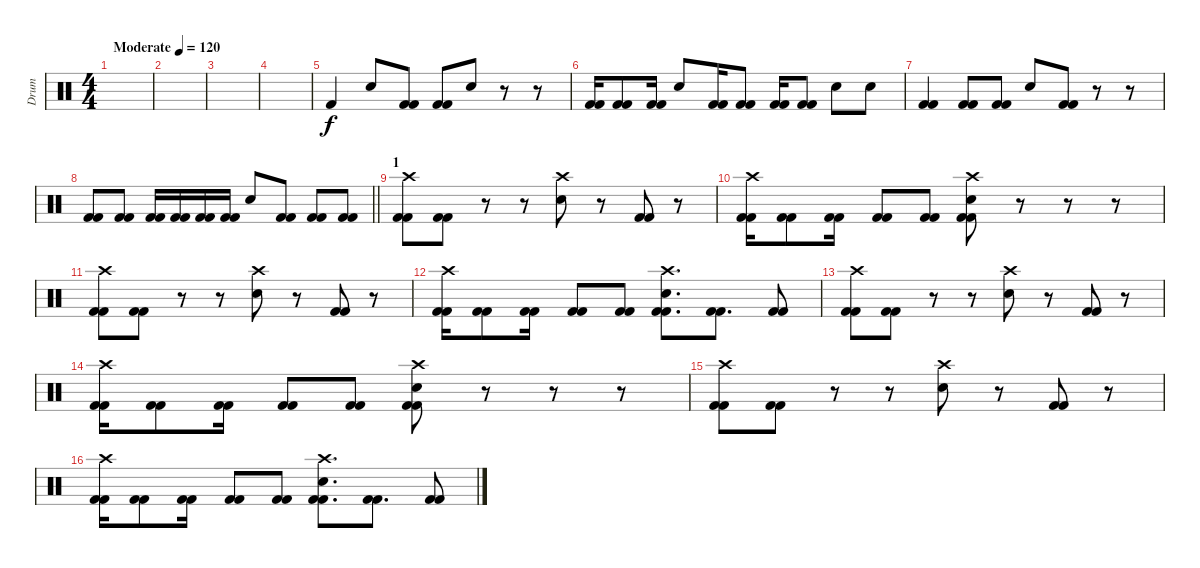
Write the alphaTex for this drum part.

\track ("Drum" "Drum") {instrument percussion}
\staff {score}
\articulation defaults
\ts (4 4)
\tempo (120 "Moderate")
\clef neutral
\ks c
|
|
|
|
"Kick (hit) 2".4 "Electric Snare (hit)".8 ("Kick (hit) 2" "Kick (hit) 2").8 ("Kick (hit) 2" "Kick (hit) 2").8 "Electric Snare (hit)".8 r.8 r.8 |
("Kick (hit) 2" "Kick (hit) 2").16 ("Kick (hit) 2" "Kick (hit) 2").8 ("Kick (hit) 2" "Kick (hit) 2").16 "Electric Snare (hit)".8 ("Kick (hit) 2" "Kick (hit) 2").16 ("Kick (hit) 2" "Kick (hit) 2").8 ("Kick (hit) 2" "Kick (hit) 2").16 ("Kick (hit) 2" "Kick (hit) 2").8 "Electric Snare (hit)".8 "Electric Snare (hit)".8 |
("Kick (hit) 2" "Kick (hit) 2").4 ("Kick (hit) 2" "Kick (hit) 2").8 ("Kick (hit) 2" "Kick (hit) 2").8 "Electric Snare (hit)".8 ("Kick (hit) 2" "Kick (hit) 2").8 r.8 r.8 |
\barLineRight lightlight
("Kick (hit) 2" "Kick (hit) 2").8 ("Kick (hit) 2" "Kick (hit) 2").8 ("Kick (hit) 2" "Kick (hit) 2").16 ("Kick (hit) 2" "Kick (hit) 2").16 ("Kick (hit) 2" "Kick (hit) 2").16 ("Kick (hit) 2" "Kick (hit) 2").16 "Electric Snare (hit)".8 ("Kick (hit) 2" "Kick (hit) 2").8 ("Kick (hit) 2" "Kick (hit) 2").8 ("Kick (hit) 2" "Kick (hit) 2").8 |
\section ("" "1")
("Crash high (hit)" "Kick (hit) 2" "Kick (hit) 2").8 ("Kick (hit) 2" "Kick (hit) 2").8 r.8 r.8 ("Crash high (hit)" "Electric Snare (hit)").8 r.8 ("Kick (hit) 2" "Kick (hit) 2").8 r.8 |
("Crash high (hit)" "Kick (hit) 2" "Kick (hit) 2").16 ("Kick (hit) 2" "Kick (hit) 2").8 ("Kick (hit) 2" "Kick (hit) 2").16 ("Kick (hit) 2" "Kick (hit) 2").8 ("Kick (hit) 2" "Kick (hit) 2").8 ("Crash high (hit)" "Electric Snare (hit)" "Kick (hit) 2" "Kick (hit) 2").8 r.8 r.8 r.8 |
("Crash high (hit)" "Kick (hit) 2" "Kick (hit) 2").8 ("Kick (hit) 2" "Kick (hit) 2").8 r.8 r.8 ("Crash high (hit)" "Electric Snare (hit)").8 r.8 ("Kick (hit) 2" "Kick (hit) 2").8 r.8 |
("Crash high (hit)" "Kick (hit) 2" "Kick (hit) 2").16 ("Kick (hit) 2" "Kick (hit) 2").8 ("Kick (hit) 2" "Kick (hit) 2").16 ("Kick (hit) 2" "Kick (hit) 2").8 ("Kick (hit) 2" "Kick (hit) 2").8 ("Crash high (hit)" "Electric Snare (hit)" "Kick (hit) 2" "Kick (hit) 2").8{d} ("Kick (hit) 2" "Kick (hit) 2").8{d} ("Kick (hit) 2" "Kick (hit) 2").8 |
("Crash high (hit)" "Kick (hit) 2" "Kick (hit) 2").8 ("Kick (hit) 2" "Kick (hit) 2").8 r.8 r.8 ("Crash high (hit)" "Electric Snare (hit)").8 r.8 ("Kick (hit) 2" "Kick (hit) 2").8 r.8 |
("Crash high (hit)" "Kick (hit) 2" "Kick (hit) 2").16 ("Kick (hit) 2" "Kick (hit) 2").8 ("Kick (hit) 2" "Kick (hit) 2").16 ("Kick (hit) 2" "Kick (hit) 2").8 ("Kick (hit) 2" "Kick (hit) 2").8 ("Crash high (hit)" "Electric Snare (hit)" "Kick (hit) 2" "Kick (hit) 2").8 r.8 r.8 r.8 |
("Crash high (hit)" "Kick (hit) 2" "Kick (hit) 2").8 ("Kick (hit) 2" "Kick (hit) 2").8 r.8 r.8 ("Crash high (hit)" "Electric Snare (hit)").8 r.8 ("Kick (hit) 2" "Kick (hit) 2").8 r.8 |
("Crash high (hit)" "Kick (hit) 2" "Kick (hit) 2").16 ("Kick (hit) 2" "Kick (hit) 2").8 ("Kick (hit) 2" "Kick (hit) 2").16 ("Kick (hit) 2" "Kick (hit) 2").8 ("Kick (hit) 2" "Kick (hit) 2").8 ("Crash high (hit)" "Electric Snare (hit)" "Kick (hit) 2" "Kick (hit) 2").8{d} ("Kick (hit) 2" "Kick (hit) 2").8{d} ("Kick (hit) 2" "Kick (hit) 2").8
